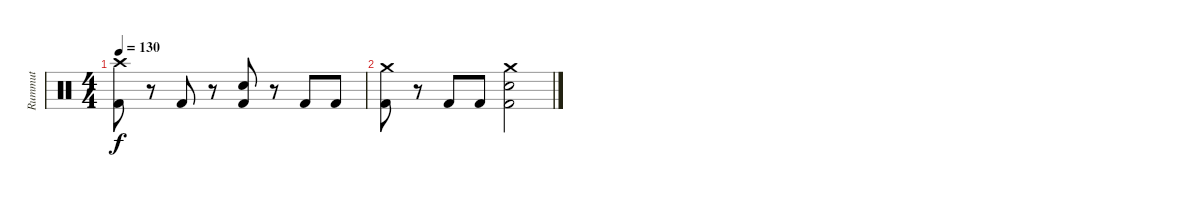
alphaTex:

\track ("Rummut" "Rummut") {instrument percussion}
\staff {score}
\articulation defaults
\ts (4 4)
\tempo 130
\clef neutral
\ks c
("Crash high (hit)" "Kick (hit) 2").8{dy f} r.8 "Kick (hit) 2".8 r.8 ("Snare (hit) 2" "Kick (hit) 2").8 r.8 "Kick (hit) 2".8 "Kick (hit) 2".8 |
("Crash medium (hit)" "Kick (hit) 2").8 r.8 "Kick (hit) 2".8 "Kick (hit) 2".8 ("Crash medium (hit)" "Snare (hit) 2" "Kick (hit) 2").2
